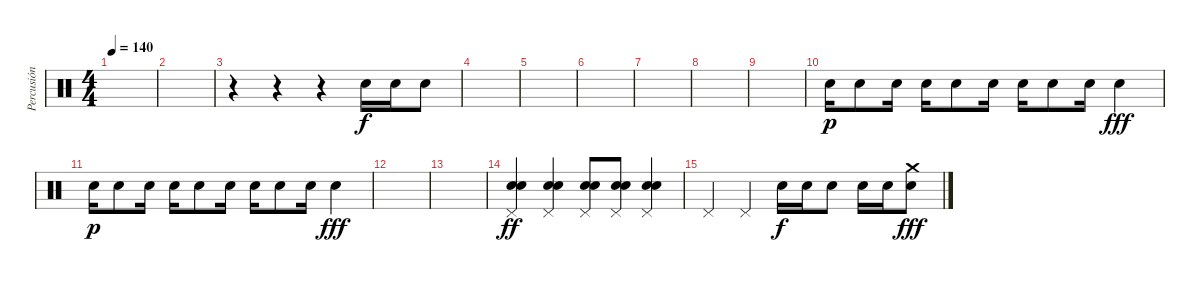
\track ("Percusión Fredy Caldas" "Percusión ") {instrument percussion}
\staff {score}
\articulation defaults
\ts (4 4)
\tempo 140
\clef neutral
\ks c
|
|
r.4 r.4 r.4 "Snare (hit) 2".16 "Snare (hit) 2".16 "Snare (hit) 2".8 |
|
|
|
|
|
|
"Snare (hit) 2".16{dy p} "Snare (hit) 2".8 "Snare (hit) 2".16 "Snare (hit) 2".16 "Snare (hit) 2".8 "Snare (hit) 2".16 "Snare (hit) 2".16 "Snare (hit) 2".8 "Snare (hit) 2".16 "Snare (hit) 2".4{dy fff} |
"Snare (hit) 2".16{dy p} "Snare (hit) 2".8 "Snare (hit) 2".16 "Snare (hit) 2".16 "Snare (hit) 2".8 "Snare (hit) 2".16 "Snare (hit) 2".16 "Snare (hit) 2".8 "Snare (hit) 2".16 "Snare (hit) 2".4{dy fff} |
|
|
("Electric Snare (hit)" "Pedal Hi-Hat (hit)" "Snare (hit) 2").4{dy ff} ("Electric Snare (hit)" "Pedal Hi-Hat (hit)" "Snare (hit) 2").4 ("Electric Snare (hit)" "Pedal Hi-Hat (hit)" "Snare (hit) 2").8 ("Electric Snare (hit)" "Pedal Hi-Hat (hit)" "Snare (hit) 2").8 ("Electric Snare (hit)" "Pedal Hi-Hat (hit)" "Snare (hit) 2").4 |
"Pedal Hi-Hat (hit)".4 "Pedal Hi-Hat (hit)".4 "Snare (hit) 2".16{dy f} "Snare (hit) 2".16 "Snare (hit) 2".8 "Snare (hit) 2".16 "Snare (hit) 2".16 ("Snare (hit) 2" "Crash medium (hit)").8{dy fff}
